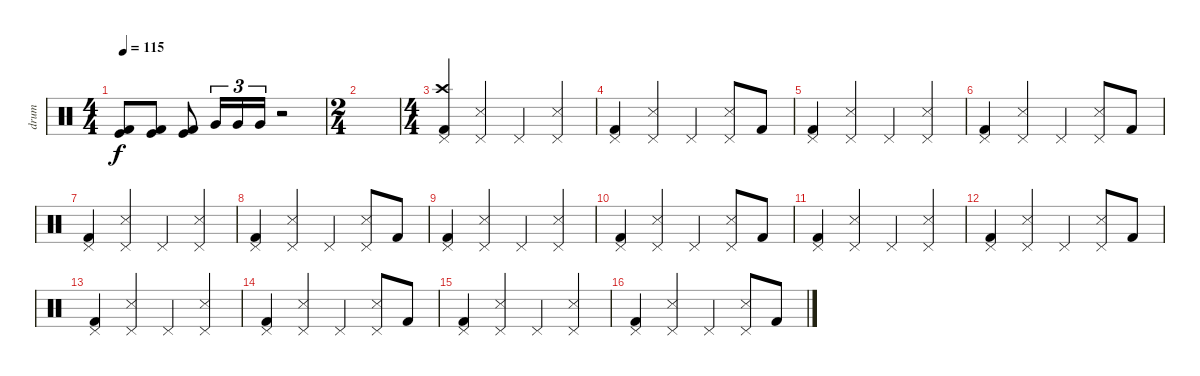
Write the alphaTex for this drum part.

\track ("drum" "drum") {instrument percussion}
\staff {score}
\articulation defaults
\ts (4 4)
\tempo 115
\clef neutral
\ks c
("Kick (hit) 2" "Kick (hit)").8{dy f} ("Kick (hit) 2" "Kick (hit)").8 ("Kick (hit) 2" "Kick (hit)").8 "Very Low Tom (hit)".16{tu (3 2)} "Very Low Tom (hit)".16{tu (3 2)} "Very Low Tom (hit)".16{tu (3 2)} r.2 |
\ts (2 4)
|
\ts (4 4)
("Crash high (hit)" "Pedal Hi-Hat (hit)" "Kick (hit) 2").4 ("Pedal Hi-Hat (hit)" "Snare (side stick) 3").4 "Pedal Hi-Hat (hit)".4 ("Pedal Hi-Hat (hit)" "Snare (side stick) 3").4 |
("Pedal Hi-Hat (hit)" "Kick (hit) 2").4 ("Pedal Hi-Hat (hit)" "Snare (side stick) 3").4 "Pedal Hi-Hat (hit)".4 ("Pedal Hi-Hat (hit)" "Snare (side stick) 3").8 "Kick (hit) 2".8 |
("Pedal Hi-Hat (hit)" "Kick (hit) 2").4 ("Pedal Hi-Hat (hit)" "Snare (side stick) 3").4 "Pedal Hi-Hat (hit)".4 ("Pedal Hi-Hat (hit)" "Snare (side stick) 3").4 |
("Pedal Hi-Hat (hit)" "Kick (hit) 2").4 ("Pedal Hi-Hat (hit)" "Snare (side stick) 3").4 "Pedal Hi-Hat (hit)".4 ("Pedal Hi-Hat (hit)" "Snare (side stick) 3").8 "Kick (hit) 2".8 |
("Pedal Hi-Hat (hit)" "Kick (hit) 2").4 ("Pedal Hi-Hat (hit)" "Snare (side stick) 3").4 "Pedal Hi-Hat (hit)".4 ("Pedal Hi-Hat (hit)" "Snare (side stick) 3").4 |
("Pedal Hi-Hat (hit)" "Kick (hit) 2").4 ("Pedal Hi-Hat (hit)" "Snare (side stick) 3").4 "Pedal Hi-Hat (hit)".4 ("Pedal Hi-Hat (hit)" "Snare (side stick) 3").8 "Kick (hit) 2".8 |
("Pedal Hi-Hat (hit)" "Kick (hit) 2").4 ("Pedal Hi-Hat (hit)" "Snare (side stick) 3").4 "Pedal Hi-Hat (hit)".4 ("Pedal Hi-Hat (hit)" "Snare (side stick) 3").4 |
("Pedal Hi-Hat (hit)" "Kick (hit) 2").4 ("Pedal Hi-Hat (hit)" "Snare (side stick) 3").4 "Pedal Hi-Hat (hit)".4 ("Pedal Hi-Hat (hit)" "Snare (side stick) 3").8 "Kick (hit) 2".8 |
("Pedal Hi-Hat (hit)" "Kick (hit) 2").4 ("Pedal Hi-Hat (hit)" "Snare (side stick) 3").4 "Pedal Hi-Hat (hit)".4 ("Pedal Hi-Hat (hit)" "Snare (side stick) 3").4 |
("Pedal Hi-Hat (hit)" "Kick (hit) 2").4 ("Pedal Hi-Hat (hit)" "Snare (side stick) 3").4 "Pedal Hi-Hat (hit)".4 ("Pedal Hi-Hat (hit)" "Snare (side stick) 3").8 "Kick (hit) 2".8 |
("Pedal Hi-Hat (hit)" "Kick (hit) 2").4 ("Pedal Hi-Hat (hit)" "Snare (side stick) 3").4 "Pedal Hi-Hat (hit)".4 ("Pedal Hi-Hat (hit)" "Snare (side stick) 3").4 |
("Pedal Hi-Hat (hit)" "Kick (hit) 2").4 ("Pedal Hi-Hat (hit)" "Snare (side stick) 3").4 "Pedal Hi-Hat (hit)".4 ("Pedal Hi-Hat (hit)" "Snare (side stick) 3").8 "Kick (hit) 2".8 |
("Pedal Hi-Hat (hit)" "Kick (hit) 2").4 ("Pedal Hi-Hat (hit)" "Snare (side stick) 3").4 "Pedal Hi-Hat (hit)".4 ("Pedal Hi-Hat (hit)" "Snare (side stick) 3").4 |
("Pedal Hi-Hat (hit)" "Kick (hit) 2").4 ("Pedal Hi-Hat (hit)" "Snare (side stick) 3").4 "Pedal Hi-Hat (hit)".4 ("Pedal Hi-Hat (hit)" "Snare (side stick) 3").8 "Kick (hit) 2".8
